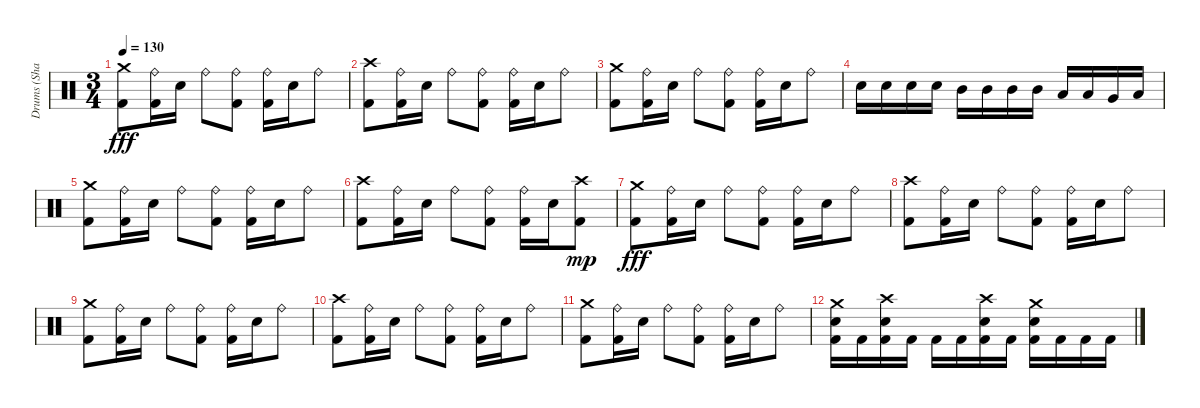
\track ("Drums (Shawn)" "Drums (Sha") {instrument percussion}
\staff {score}
\articulation defaults
\ts (3 4)
\tempo 130
\clef neutral
\ks c
("Crash medium (hit)" "Kick (hit) 2").8{dy fff volume 11} ("Ride (bell)" "Kick (hit) 2").16 "Snare (hit) 2".16 "Ride (bell)".8 ("Ride (bell)" "Kick (hit) 2").8 ("Ride (bell)" "Kick (hit) 2").16 "Snare (hit) 2".16 "Ride (bell)".8 |
("Crash high (hit)" "Kick (hit) 2").8{volume 10} ("Ride (bell)" "Kick (hit) 2").16 "Snare (hit) 2".16 "Ride (bell)".8 ("Ride (bell)" "Kick (hit) 2").8 ("Ride (bell)" "Kick (hit) 2").16 "Snare (hit) 2".16 "Ride (bell)".8 |
("Crash medium (hit)" "Kick (hit) 2").8{volume 9} ("Ride (bell)" "Kick (hit) 2").16 "Snare (hit) 2".16 "Ride (bell)".8 ("Ride (bell)" "Kick (hit) 2").8 ("Ride (bell)" "Kick (hit) 2").16 "Snare (hit) 2".16 "Ride (bell)".8 |
"Snare (hit) 2".16{volume 8} "Snare (hit) 2".16 "Snare (hit) 2".16 "Snare (hit) 2".16 "Mid Tom (hit)".16 "Mid Tom (hit)".16 "Mid Tom (hit)".16 "Mid Tom (hit)".16 "Low Tom (hit)".16 "Low Tom (hit)".16 "Very Low Tom (hit)".16 "Low Floor Tom (hit)".16 |
("Crash medium (hit)" "Kick (hit) 2").8{volume 7} ("Ride (bell)" "Kick (hit) 2").16 "Snare (hit) 2".16 "Ride (bell)".8 ("Ride (bell)" "Kick (hit) 2").8 ("Ride (bell)" "Kick (hit) 2").16 "Snare (hit) 2".16 "Ride (bell)".8 |
("Crash high (hit)" "Kick (hit) 2").8{volume 6} ("Ride (bell)" "Kick (hit) 2").16 "Snare (hit) 2".16 "Ride (bell)".8 ("Ride (bell)" "Kick (hit) 2").8 ("Ride (bell)" "Kick (hit) 2").16 "Snare (hit) 2".16 ("Crash high (hit)" "Kick (hit) 2").8{dy mp} |
("Crash medium (hit)" "Kick (hit) 2").8{dy fff volume 5} ("Ride (bell)" "Kick (hit) 2").16 "Snare (hit) 2".16 "Ride (bell)".8 ("Ride (bell)" "Kick (hit) 2").8 ("Ride (bell)" "Kick (hit) 2").16 "Snare (hit) 2".16 "Ride (bell)".8 |
("Crash high (hit)" "Kick (hit) 2").8{volume 4} ("Ride (bell)" "Kick (hit) 2").16 "Snare (hit) 2".16 "Ride (bell)".8 ("Ride (bell)" "Kick (hit) 2").8 ("Ride (bell)" "Kick (hit) 2").16 "Snare (hit) 2".16 "Ride (bell)".8 |
("Crash medium (hit)" "Kick (hit) 2").8{volume 3} ("Ride (bell)" "Kick (hit) 2").16 "Snare (hit) 2".16 "Ride (bell)".8 ("Ride (bell)" "Kick (hit) 2").8 ("Ride (bell)" "Kick (hit) 2").16 "Snare (hit) 2".16 "Ride (bell)".8 |
("Crash high (hit)" "Kick (hit) 2").8{volume 2} ("Ride (bell)" "Kick (hit) 2").16 "Snare (hit) 2".16 "Ride (bell)".8 ("Ride (bell)" "Kick (hit) 2").8 ("Ride (bell)" "Kick (hit) 2").16 "Snare (hit) 2".16 "Ride (bell)".8 |
("Crash medium (hit)" "Kick (hit) 2").8{volume 1} ("Ride (bell)" "Kick (hit) 2").16 "Snare (hit) 2".16 "Ride (bell)".8 ("Ride (bell)" "Kick (hit) 2").8 ("Ride (bell)" "Kick (hit) 2").16 "Snare (hit) 2".16 "Ride (bell)".8 |
("Crash medium (hit)" "Snare (hit) 2" "Kick (hit) 2").16{volume 0} "Kick (hit) 2".16 ("Crash high (hit)" "Snare (hit) 2" "Kick (hit) 2").16 "Kick (hit) 2".16 "Kick (hit) 2".16 "Kick (hit) 2".16 ("Crash high (hit)" "Snare (hit) 2" "Kick (hit) 2").16 "Kick (hit) 2".16 ("Crash medium (hit)" "Snare (hit) 2" "Kick (hit) 2").16 "Kick (hit) 2".16 "Kick (hit) 2".16 "Kick (hit) 2".16
